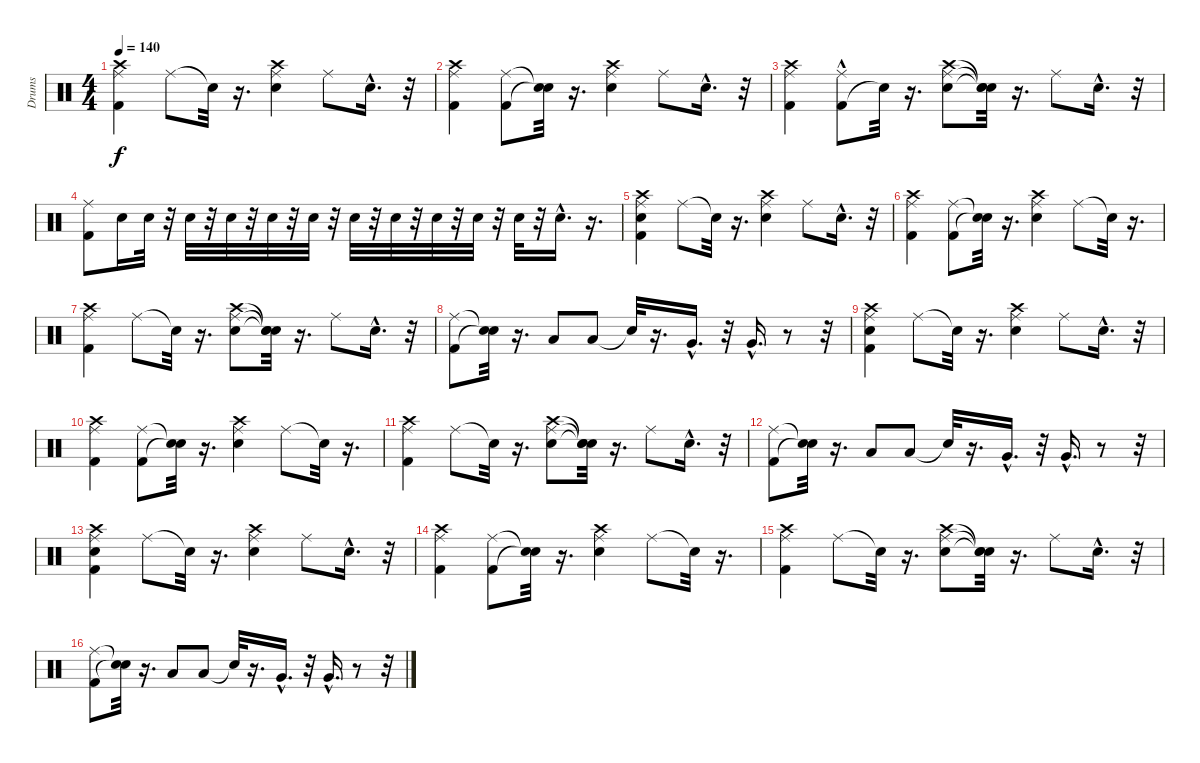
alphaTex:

\track ("Drums" "Drums") {instrument percussion}
\staff {score}
\articulation defaults
\ts (4 4)
\tempo 140
\clef neutral
\ks c
("Crash high (hit)" "Ride (middle)" "Kick (hit) 2").4{dy f} "Ride (middle)".8 "Snare (hit)"{t}.32 r.16{d} ("Crash high (hit)" "Ride (middle)" "Snare (hit) 2").4 "Ride (middle)".8 "Snare (hit) 2"{hac}.16{d} r.32 |
("Ride (middle)" "Kick (hit) 2" "Crash high (hit)").4 ("Ride (middle)" "Kick (hit) 2").8 ("Snare (hit)"{t} "Snare (hit)"{t}).32 r.16{d} ("Snare (hit) 2" "Crash high (hit)" "Ride (middle)").4 "Ride (middle)".8 "Snare (hit) 2"{hac}.16{d} r.32 |
("Kick (hit) 2" "Ride (middle)" "Crash high (hit)").4 ("Kick (hit) 2"{hac} "Ride (middle)").8 "Snare (hit)"{t}.32 r.16{d} ("Ride (middle)" "Crash high (hit)" "Snare (hit) 2").8 ("Snare (hit)"{t} "Snare (hit)"{t} "Snare (hit)"{t}).32 r.16{d} "Ride (middle)".8 "Snare (hit) 2"{hac}.16{d} r.32 |
("Kick (hit) 2" "Ride (middle)").8 "Electric Snare (hit)".16 "Electric Snare (hit)".32 r.32 "Electric Snare (hit)".32 r.32 "Electric Snare (hit)".32 r.32 "Electric Snare (hit)".32 r.32 "Electric Snare (hit)".32 r.32 "Electric Snare (hit)".32 r.32 "Electric Snare (hit)".32 r.32 "Electric Snare (hit)".32 r.32 "Electric Snare (hit)".32 r.32 "Electric Snare (hit)".32 r.32 "Electric Snare (hit)"{hac}.16{d} r.16{d} |
("Kick (hit) 2" "Ride (middle)" "Crash high (hit)" "Snare (hit) 2").4 "Ride (middle)".8 "Snare (hit)"{t}.32 r.16{d} ("Snare (hit) 2" "Ride (middle)" "Crash high (hit)").4 "Ride (middle)".8 "Snare (hit) 2"{hac}.16{d} r.32 |
("Kick (hit) 2" "Ride (middle)" "Crash high (hit)").4 ("Kick (hit) 2" "Ride (middle)").8 ("Snare (hit)"{t} "Snare (hit)"{t}).32 r.16{d} ("Snare (hit) 2" "Crash high (hit)" "Ride (middle)").4 "Ride (middle)".8 "Snare (hit)"{t}.32 r.16{d} |
("Crash high (hit)" "Kick (hit) 2" "Ride (middle)").4 "Ride (middle)".8 "Snare (hit)"{t}.32 r.16{d} ("Crash high (hit)" "Ride (middle)" "Snare (hit) 2").8 ("Snare (hit)"{t} "Snare (hit)"{t} "Snare (hit)"{t}).32 r.16{d} "Ride (middle)".8 "Snare (hit) 2"{hac}.16{d} r.32 |
("Ride (middle)" "Kick (hit) 2").8 ("Snare (hit)"{t} "Snare (hit)"{t}).32 r.16{d} "Low Tom (hit)".8 "Low Tom (hit)".8 "Snare (hit)"{t}.32 r.16{d} "Very Low Tom (hit)"{hac}.16{d} r.32 "Very Low Tom (hit)"{hac}.16{d} r.8 r.32 |
("Kick (hit) 2" "Crash high (hit)" "Snare (hit) 2" "Ride (middle)").4 "Ride (middle)".8 "Snare (hit)"{t}.32 r.16{d} ("Snare (hit) 2" "Crash high (hit)" "Ride (middle)").4 "Ride (middle)".8 "Snare (hit) 2"{hac}.16{d} r.32 |
("Crash high (hit)" "Kick (hit) 2" "Ride (middle)").4 ("Kick (hit) 2" "Ride (middle)").8 ("Snare (hit)"{t} "Snare (hit)"{t}).32 r.16{d} ("Snare (hit) 2" "Crash high (hit)" "Ride (middle)").4 "Ride (middle)".8 "Snare (hit)"{t}.32 r.16{d} |
("Ride (middle)" "Crash high (hit)" "Kick (hit) 2").4 "Ride (middle)".8 "Snare (hit)"{t}.32 r.16{d} ("Ride (middle)" "Snare (hit) 2" "Crash high (hit)").8 ("Snare (hit)"{t} "Snare (hit)"{t} "Snare (hit)"{t}).32 r.16{d} "Ride (middle)".8 "Snare (hit) 2"{hac}.16{d} r.32 |
("Kick (hit) 2" "Ride (middle)").8 ("Snare (hit)"{t} "Snare (hit)"{t}).32 r.16{d} "Low Tom (hit)".8 "Low Tom (hit)".8 "Snare (hit)"{t}.32 r.16{d} "Very Low Tom (hit)"{hac}.16{d} r.32 "Very Low Tom (hit)"{hac}.16{d} r.8 r.32 |
("Kick (hit) 2" "Ride (middle)" "Crash high (hit)" "Snare (hit) 2").4 "Ride (middle)".8 "Snare (hit)"{t}.32 r.16{d} ("Snare (hit) 2" "Ride (middle)" "Crash high (hit)").4 "Ride (middle)".8 "Snare (hit) 2"{hac}.16{d} r.32 |
("Kick (hit) 2" "Ride (middle)" "Crash high (hit)").4 ("Kick (hit) 2" "Ride (middle)").8 ("Snare (hit)"{t} "Snare (hit)"{t}).32 r.16{d} ("Snare (hit) 2" "Crash high (hit)" "Ride (middle)").4 "Ride (middle)".8 "Snare (hit)"{t}.32 r.16{d} |
("Crash high (hit)" "Kick (hit) 2" "Ride (middle)").4 "Ride (middle)".8 "Snare (hit)"{t}.32 r.16{d} ("Crash high (hit)" "Ride (middle)" "Snare (hit) 2").8 ("Snare (hit)"{t} "Snare (hit)"{t} "Snare (hit)"{t}).32 r.16{d} "Ride (middle)".8 "Snare (hit) 2"{hac}.16{d} r.32 |
("Ride (middle)" "Kick (hit) 2").8 ("Snare (hit)"{t} "Snare (hit)"{t}).32 r.16{d} "Low Tom (hit)".8 "Low Tom (hit)".8 "Snare (hit)"{t}.32 r.16{d} "Very Low Tom (hit)"{hac}.16{d} r.32 "Very Low Tom (hit)"{hac}.16{d} r.8 r.32
